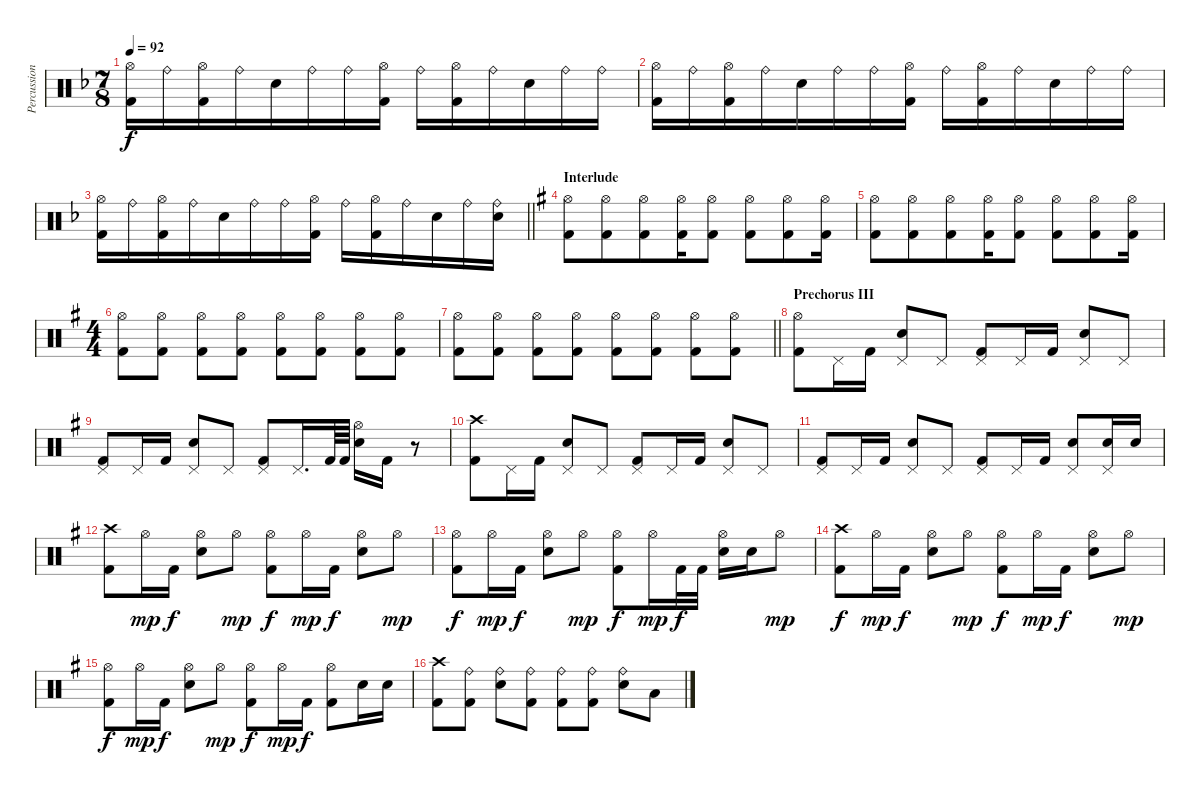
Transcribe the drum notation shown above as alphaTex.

\track ("Percussion" "Percussion") {instrument percussion}
\staff {score}
\articulation defaults
\ts (7 8)
\tempo 92
\clef neutral
\ks dminor
("Hi-Hat (open)" "Kick (hit) 2").16{dy f} "Ride (bell)".16 ("Hi-Hat (open)" "Kick (hit) 2").16 "Ride (bell)".16 "Electric Snare (hit)".16 "Ride (bell)".16 "Ride (bell)".16 ("Hi-Hat (open)" "Kick (hit) 2").16 "Ride (bell)".16 ("Hi-Hat (open)" "Kick (hit) 2").16 "Ride (bell)".16 "Electric Snare (hit)".16 "Ride (bell)".16 "Ride (bell)".16 |
("Hi-Hat (open)" "Kick (hit) 2").16 "Ride (bell)".16 ("Hi-Hat (open)" "Kick (hit) 2").16 "Ride (bell)".16 "Electric Snare (hit)".16 "Ride (bell)".16 "Ride (bell)".16 ("Hi-Hat (open)" "Kick (hit) 2").16 "Ride (bell)".16 ("Hi-Hat (open)" "Kick (hit) 2").16 "Ride (bell)".16 "Electric Snare (hit)".16 "Ride (bell)".16 "Ride (bell)".16 |
\barLineRight lightlight
("Hi-Hat (open)" "Kick (hit) 2").16 "Ride (bell)".16 ("Hi-Hat (open)" "Kick (hit) 2").16 "Ride (bell)".16 "Electric Snare (hit)".16 "Ride (bell)".16 "Ride (bell)".16 ("Hi-Hat (open)" "Kick (hit) 2").16 "Ride (bell)".16 ("Hi-Hat (open)" "Kick (hit) 2").16 "Ride (bell)".16 "Electric Snare (hit)".16 "Ride (bell)".16 ("Ride (bell)" "Electric Snare (hit)").16 |
\section ("" "Interlude")
\ks eminor
("Hi-Hat (open)" "Kick (hit) 2").8 ("Hi-Hat (open)" "Kick (hit) 2").8 ("Hi-Hat (open)" "Kick (hit) 2").8 ("Hi-Hat (open)" "Kick (hit) 2").16 ("Hi-Hat (open)" "Kick (hit) 2").8 ("Hi-Hat (open)" "Kick (hit) 2").8 ("Hi-Hat (open)" "Kick (hit) 2").8 ("Hi-Hat (open)" "Kick (hit) 2").16 |
("Hi-Hat (open)" "Kick (hit) 2").8 ("Hi-Hat (open)" "Kick (hit) 2").8 ("Hi-Hat (open)" "Kick (hit) 2").8 ("Hi-Hat (open)" "Kick (hit) 2").16 ("Hi-Hat (open)" "Kick (hit) 2").8 ("Hi-Hat (open)" "Kick (hit) 2").8 ("Hi-Hat (open)" "Kick (hit) 2").8 ("Hi-Hat (open)" "Kick (hit) 2").16 |
\ts (4 4)
("Hi-Hat (open)" "Kick (hit) 2").8 ("Hi-Hat (open)" "Kick (hit) 2").8 ("Hi-Hat (open)" "Kick (hit) 2").8 ("Hi-Hat (open)" "Kick (hit) 2").8 ("Hi-Hat (open)" "Kick (hit) 2").8 ("Hi-Hat (open)" "Kick (hit) 2").8 ("Hi-Hat (open)" "Kick (hit) 2").8 ("Hi-Hat (open)" "Kick (hit) 2").8 |
\barLineRight lightlight
("Hi-Hat (open)" "Kick (hit) 2").8 ("Hi-Hat (open)" "Kick (hit) 2").8 ("Hi-Hat (open)" "Kick (hit) 2").8 ("Hi-Hat (open)" "Kick (hit) 2").8 ("Hi-Hat (open)" "Kick (hit) 2").8 ("Hi-Hat (open)" "Kick (hit) 2").8 ("Hi-Hat (open)" "Kick (hit) 2").8 ("Hi-Hat (open)" "Kick (hit) 2").8 |
\section ("" "Prechorus III")
("Hi-Hat (open)" "Kick (hit) 2").8 "Pedal Hi-Hat (hit)".16 "Kick (hit) 2".16 ("Pedal Hi-Hat (hit)" "Electric Snare (hit)").8 "Pedal Hi-Hat (hit)".8 ("Pedal Hi-Hat (hit)" "Kick (hit) 2").8 "Pedal Hi-Hat (hit)".16 "Kick (hit) 2".16 ("Pedal Hi-Hat (hit)" "Electric Snare (hit)").8 "Pedal Hi-Hat (hit)".8 |
("Pedal Hi-Hat (hit)" "Kick (hit) 2").8 "Pedal Hi-Hat (hit)".16 "Kick (hit) 2".16 ("Pedal Hi-Hat (hit)" "Electric Snare (hit)").8 "Pedal Hi-Hat (hit)".8 ("Pedal Hi-Hat (hit)" "Kick (hit) 2").8 "Pedal Hi-Hat (hit)".16{d} "Kick (hit) 2".64 "Kick (hit) 2".64 ("Hi-Hat (open)" "Electric Snare (hit)").16 "Kick (hit) 2".16 r.8 |
("Crash high (hit)" "Kick (hit) 2").8 "Pedal Hi-Hat (hit)".16 "Kick (hit) 2".16 ("Pedal Hi-Hat (hit)" "Electric Snare (hit)").8 "Pedal Hi-Hat (hit)".8 ("Pedal Hi-Hat (hit)" "Kick (hit) 2").8 "Pedal Hi-Hat (hit)".16 "Kick (hit) 2".16 ("Pedal Hi-Hat (hit)" "Electric Snare (hit)").8 "Pedal Hi-Hat (hit)".8 |
("Pedal Hi-Hat (hit)" "Kick (hit) 2").8 "Pedal Hi-Hat (hit)".16 "Kick (hit) 2".16 ("Pedal Hi-Hat (hit)" "Electric Snare (hit)").8 "Pedal Hi-Hat (hit)".8 ("Pedal Hi-Hat (hit)" "Kick (hit) 2").8 "Pedal Hi-Hat (hit)".16 "Kick (hit) 2".16 ("Pedal Hi-Hat (hit)" "Electric Snare (hit)").8 ("Pedal Hi-Hat (hit)" "Electric Snare (hit)").16 "Electric Snare (hit)".16 |
("Crash high (hit)" "Kick (hit) 2").8 "Hi-Hat (open)".16{dy mp} "Kick (hit) 2".16{dy f} ("Hi-Hat (open)" "Electric Snare (hit)").8 "Hi-Hat (open)".8{dy mp} ("Hi-Hat (open)" "Kick (hit) 2").8{dy f} "Hi-Hat (open)".16{dy mp} "Kick (hit) 2".16{dy f} ("Hi-Hat (open)" "Electric Snare (hit)").8 "Hi-Hat (open)".8{dy mp} |
("Hi-Hat (open)" "Kick (hit) 2").8{dy f} "Hi-Hat (open)".16{dy mp} "Kick (hit) 2".16{dy f} ("Hi-Hat (open)" "Electric Snare (hit)").8 "Hi-Hat (open)".8{dy mp} ("Hi-Hat (open)" "Kick (hit) 2").8{dy f} "Hi-Hat (open)".16{dy mp} "Kick (hit) 2".32{dy f} "Kick (hit) 2".32 ("Hi-Hat (open)" "Electric Snare (hit)").16 "Electric Snare (hit)".16 "Hi-Hat (open)".8{dy mp} |
("Crash high (hit)" "Kick (hit) 2").8{dy f} "Hi-Hat (open)".16{dy mp} "Kick (hit) 2".16{dy f} ("Hi-Hat (open)" "Electric Snare (hit)").8 "Hi-Hat (open)".8{dy mp} ("Hi-Hat (open)" "Kick (hit) 2").8{dy f} "Hi-Hat (open)".16{dy mp} "Kick (hit) 2".16{dy f} ("Hi-Hat (open)" "Electric Snare (hit)").8 "Hi-Hat (open)".8{dy mp} |
("Hi-Hat (open)" "Kick (hit) 2").8{dy f} "Hi-Hat (open)".16{dy mp} "Kick (hit) 2".16{dy f} ("Hi-Hat (open)" "Electric Snare (hit)").8 "Hi-Hat (open)".8{dy mp} ("Hi-Hat (open)" "Kick (hit) 2").8{dy f} "Hi-Hat (open)".16{dy mp} "Kick (hit) 2".16{dy f} ("Hi-Hat (open)" "Kick (hit) 2").8 "Electric Snare (hit)".16 "Electric Snare (hit)".16 |
("Crash high (hit)" "Kick (hit) 2").8 ("Ride (bell)" "Kick (hit) 2").8 ("Ride (bell)" "Electric Snare (hit)").8 ("Ride (bell)" "Kick (hit) 2").8 ("Ride (bell)" "Kick (hit) 2").8 ("Ride (bell)" "Kick (hit) 2").8 ("Ride (bell)" "Electric Snare (hit)").8 "Low Floor Tom (hit)".8
